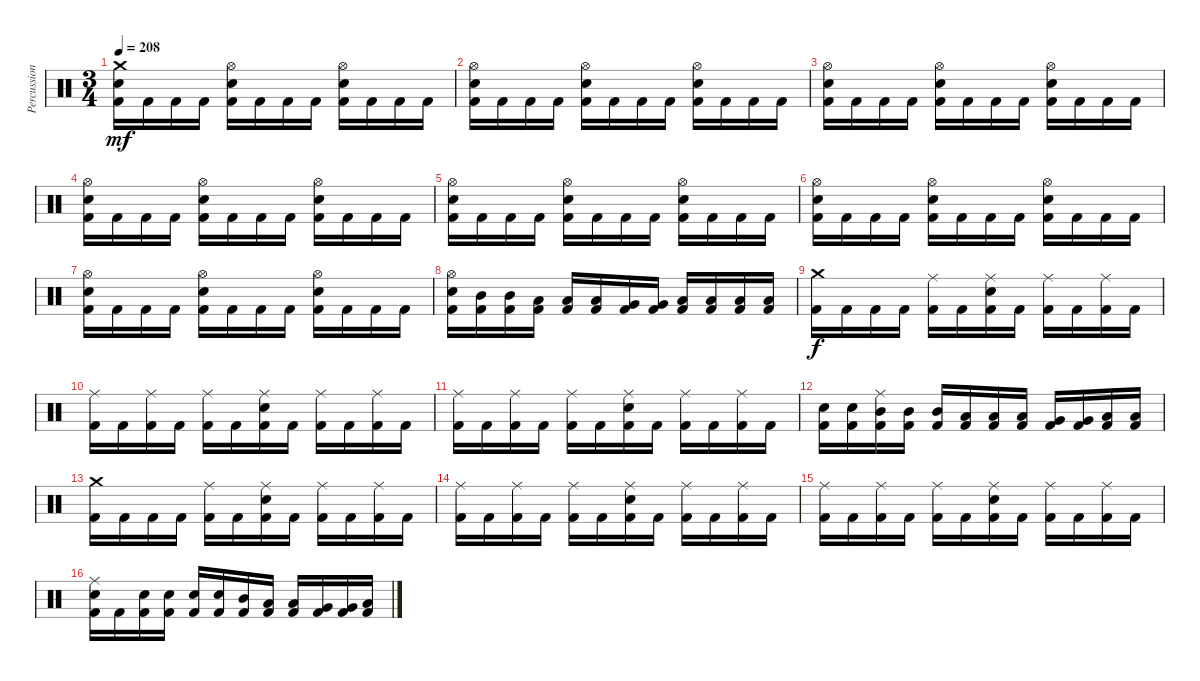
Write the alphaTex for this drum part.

\track ("Percussion" "Percussion") {instrument percussion}
\staff {score}
\articulation defaults
\ts (3 4)
\tempo 208
\clef neutral
\ks c
("Crash medium (hit)" "Electric Snare (hit)" "Kick (hit) 2").16{dy mf} "Kick (hit) 2".16 "Kick (hit) 2".16 "Kick (hit) 2".16 ("Hi-Hat (open)" "Electric Snare (hit)" "Kick (hit) 2").16 "Kick (hit) 2".16 "Kick (hit) 2".16 "Kick (hit) 2".16 ("Hi-Hat (open)" "Electric Snare (hit)" "Kick (hit) 2").16 "Kick (hit) 2".16 "Kick (hit) 2".16 "Kick (hit) 2".16 |
("Hi-Hat (open)" "Electric Snare (hit)" "Kick (hit) 2").16 "Kick (hit) 2".16 "Kick (hit) 2".16 "Kick (hit) 2".16 ("Hi-Hat (open)" "Electric Snare (hit)" "Kick (hit) 2").16 "Kick (hit) 2".16 "Kick (hit) 2".16 "Kick (hit) 2".16 ("Hi-Hat (open)" "Electric Snare (hit)" "Kick (hit) 2").16 "Kick (hit) 2".16 "Kick (hit) 2".16 "Kick (hit) 2".16 |
("Hi-Hat (open)" "Electric Snare (hit)" "Kick (hit) 2").16 "Kick (hit) 2".16 "Kick (hit) 2".16 "Kick (hit) 2".16 ("Hi-Hat (open)" "Electric Snare (hit)" "Kick (hit) 2").16 "Kick (hit) 2".16 "Kick (hit) 2".16 "Kick (hit) 2".16 ("Hi-Hat (open)" "Electric Snare (hit)" "Kick (hit) 2").16 "Kick (hit) 2".16 "Kick (hit) 2".16 "Kick (hit) 2".16 |
("Hi-Hat (open)" "Electric Snare (hit)" "Kick (hit) 2").16 "Kick (hit) 2".16 "Kick (hit) 2".16 "Kick (hit) 2".16 ("Hi-Hat (open)" "Electric Snare (hit)" "Kick (hit) 2").16 "Kick (hit) 2".16 "Kick (hit) 2".16 "Kick (hit) 2".16 ("Hi-Hat (open)" "Electric Snare (hit)" "Kick (hit) 2").16 "Kick (hit) 2".16 "Kick (hit) 2".16 "Kick (hit) 2".16 |
("Hi-Hat (open)" "Electric Snare (hit)" "Kick (hit) 2").16 "Kick (hit) 2".16 "Kick (hit) 2".16 "Kick (hit) 2".16 ("Hi-Hat (open)" "Electric Snare (hit)" "Kick (hit) 2").16 "Kick (hit) 2".16 "Kick (hit) 2".16 "Kick (hit) 2".16 ("Hi-Hat (open)" "Electric Snare (hit)" "Kick (hit) 2").16 "Kick (hit) 2".16 "Kick (hit) 2".16 "Kick (hit) 2".16 |
("Hi-Hat (open)" "Electric Snare (hit)" "Kick (hit) 2").16 "Kick (hit) 2".16 "Kick (hit) 2".16 "Kick (hit) 2".16 ("Hi-Hat (open)" "Electric Snare (hit)" "Kick (hit) 2").16 "Kick (hit) 2".16 "Kick (hit) 2".16 "Kick (hit) 2".16 ("Hi-Hat (open)" "Electric Snare (hit)" "Kick (hit) 2").16 "Kick (hit) 2".16 "Kick (hit) 2".16 "Kick (hit) 2".16 |
("Hi-Hat (open)" "Electric Snare (hit)" "Kick (hit) 2").16 "Kick (hit) 2".16 "Kick (hit) 2".16 "Kick (hit) 2".16 ("Hi-Hat (open)" "Electric Snare (hit)" "Kick (hit) 2").16 "Kick (hit) 2".16 "Kick (hit) 2".16 "Kick (hit) 2".16 ("Hi-Hat (open)" "Electric Snare (hit)" "Kick (hit) 2").16 "Kick (hit) 2".16 "Kick (hit) 2".16 "Kick (hit) 2".16 |
("Hi-Hat (open)" "Electric Snare (hit)" "Kick (hit) 2").16 ("Mid Tom (hit)" "Kick (hit) 2").16 ("Mid Tom (hit)" "Kick (hit) 2").16 ("Low Tom (hit)" "Kick (hit) 2").16 ("Low Tom (hit)" "Kick (hit) 2").16 ("Low Tom (hit)" "Kick (hit) 2").16 ("Very Low Tom (hit)" "Kick (hit) 2").16 ("Very Low Tom (hit)" "Kick (hit) 2").16 ("Low Floor Tom (hit)" "Kick (hit) 2").16 ("Low Floor Tom (hit)" "Kick (hit) 2").16 ("Low Floor Tom (hit)" "Kick (hit) 2").16 ("Low Floor Tom (hit)" "Kick (hit) 2").16 |
("Crash medium (hit)" "Kick (hit) 2").16{dy f} "Kick (hit) 2".16 "Kick (hit) 2".16 "Kick (hit) 2".16 ("Ride (middle)" "Kick (hit) 2").16 "Kick (hit) 2".16 ("Ride (middle)" "Electric Snare (hit)" "Kick (hit) 2").16 "Kick (hit) 2".16 ("Ride (middle)" "Kick (hit) 2").16 "Kick (hit) 2".16 ("Ride (middle)" "Kick (hit) 2").16 "Kick (hit) 2".16 |
("Ride (middle)" "Kick (hit) 2").16 "Kick (hit) 2".16 ("Ride (middle)" "Kick (hit) 2").16 "Kick (hit) 2".16 ("Ride (middle)" "Kick (hit) 2").16 "Kick (hit) 2".16 ("Ride (middle)" "Electric Snare (hit)" "Kick (hit) 2").16 "Kick (hit) 2".16 ("Ride (middle)" "Kick (hit) 2").16 "Kick (hit) 2".16 ("Ride (middle)" "Kick (hit) 2").16 "Kick (hit) 2".16 |
("Ride (middle)" "Kick (hit) 2").16 "Kick (hit) 2".16 ("Ride (middle)" "Kick (hit) 2").16 "Kick (hit) 2".16 ("Ride (middle)" "Kick (hit) 2").16 "Kick (hit) 2".16 ("Ride (middle)" "Electric Snare (hit)" "Kick (hit) 2").16 "Kick (hit) 2".16 ("Ride (middle)" "Kick (hit) 2").16 "Kick (hit) 2".16 ("Ride (middle)" "Kick (hit) 2").16 "Kick (hit) 2".16 |
("Electric Snare (hit)" "Kick (hit) 2").16 ("Electric Snare (hit)" "Kick (hit) 2").16 ("Ride (middle)" "Mid Tom (hit)" "Kick (hit) 2").16 ("Mid Tom (hit)" "Kick (hit) 2").16 ("Mid Tom (hit)" "Kick (hit) 2").16 ("Low Tom (hit)" "Kick (hit) 2").16 ("Low Tom (hit)" "Kick (hit) 2").16 ("Low Tom (hit)" "Kick (hit) 2").16 ("Very Low Tom (hit)" "Kick (hit) 2").16 ("Very Low Tom (hit)" "Kick (hit) 2").16 ("Low Floor Tom (hit)" "Kick (hit) 2").16 ("Low Floor Tom (hit)" "Kick (hit) 2").16 |
("Crash medium (hit)" "Kick (hit) 2").16 "Kick (hit) 2".16 "Kick (hit) 2".16 "Kick (hit) 2".16 ("Ride (middle)" "Kick (hit) 2").16 "Kick (hit) 2".16 ("Ride (middle)" "Electric Snare (hit)" "Kick (hit) 2").16 "Kick (hit) 2".16 ("Ride (middle)" "Kick (hit) 2").16 "Kick (hit) 2".16 ("Ride (middle)" "Kick (hit) 2").16 "Kick (hit) 2".16 |
("Ride (middle)" "Kick (hit) 2").16 "Kick (hit) 2".16 ("Ride (middle)" "Kick (hit) 2").16 "Kick (hit) 2".16 ("Ride (middle)" "Kick (hit) 2").16 "Kick (hit) 2".16 ("Ride (middle)" "Electric Snare (hit)" "Kick (hit) 2").16 "Kick (hit) 2".16 ("Ride (middle)" "Kick (hit) 2").16 "Kick (hit) 2".16 ("Ride (middle)" "Kick (hit) 2").16 "Kick (hit) 2".16 |
("Ride (middle)" "Kick (hit) 2").16 "Kick (hit) 2".16 ("Ride (middle)" "Kick (hit) 2").16 "Kick (hit) 2".16 ("Ride (middle)" "Kick (hit) 2").16 "Kick (hit) 2".16 ("Ride (middle)" "Electric Snare (hit)" "Kick (hit) 2").16 "Kick (hit) 2".16 ("Ride (middle)" "Kick (hit) 2").16 "Kick (hit) 2".16 ("Ride (middle)" "Kick (hit) 2").16 "Kick (hit) 2".16 |
("Ride (middle)" "Electric Snare (hit)" "Kick (hit) 2").16 "Kick (hit) 2".16 ("Electric Snare (hit)" "Kick (hit) 2").16 ("Electric Snare (hit)" "Kick (hit) 2").16 ("Electric Snare (hit)" "Kick (hit) 2").16 ("Electric Snare (hit)" "Kick (hit) 2").16 ("Mid Tom (hit)" "Kick (hit) 2").16 ("Low Tom (hit)" "Kick (hit) 2").16 ("Low Tom (hit)" "Kick (hit) 2").16 ("Very Low Tom (hit)" "Kick (hit) 2").16 ("Very Low Tom (hit)" "Kick (hit) 2").16 ("Low Floor Tom (hit)" "Kick (hit) 2").16
